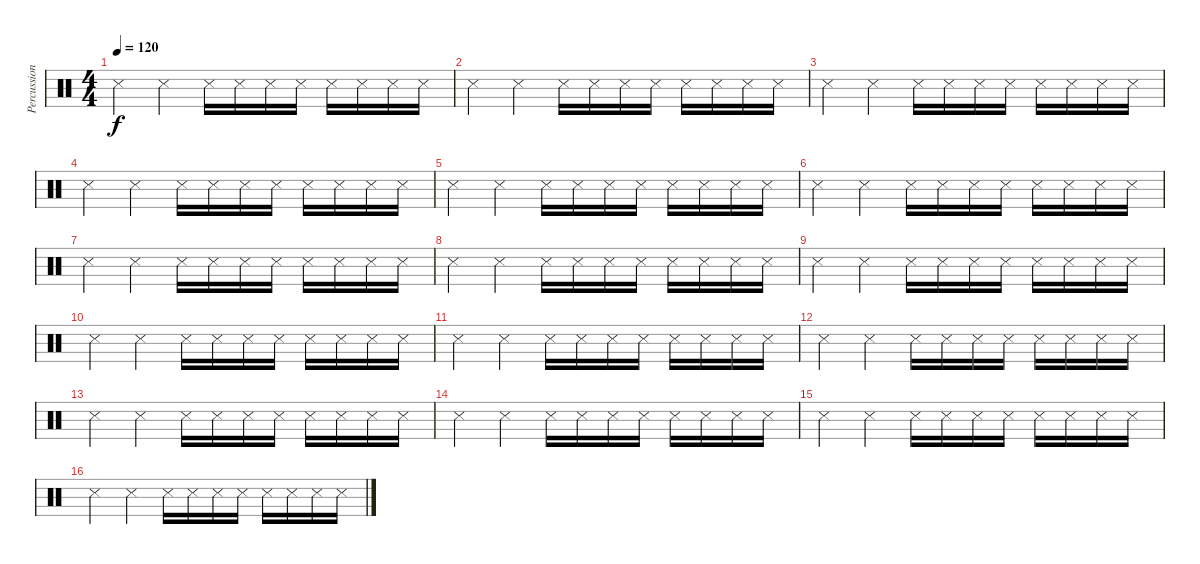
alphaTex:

\track ("Percussioni" "Percussion") {instrument percussion}
\staff {score}
\articulation defaults
\ts (4 4)
\tempo 120
\clef neutral
\ks c "Metronome (hit)".4{dy f} "Metronome (hit)".4 "Metronome (hit)".16 "Metronome (hit)".16 "Metronome (hit)".16 "Metronome (hit)".16 "Metronome (hit)".16 "Metronome (hit)".16 "Metronome (hit)".16 "Metronome (hit)".16
|
"Metronome (hit)".4 "Metronome (hit)".4 "Metronome (hit)".16 "Metronome (hit)".16 "Metronome (hit)".16 "Metronome (hit)".16 "Metronome (hit)".16 "Metronome (hit)".16 "Metronome (hit)".16 "Metronome (hit)".16 |
"Metronome (hit)".4 "Metronome (hit)".4 "Metronome (hit)".16 "Metronome (hit)".16 "Metronome (hit)".16 "Metronome (hit)".16 "Metronome (hit)".16 "Metronome (hit)".16 "Metronome (hit)".16 "Metronome (hit)".16 |
"Metronome (hit)".4 "Metronome (hit)".4 "Metronome (hit)".16 "Metronome (hit)".16 "Metronome (hit)".16 "Metronome (hit)".16 "Metronome (hit)".16 "Metronome (hit)".16 "Metronome (hit)".16 "Metronome (hit)".16 |
"Metronome (hit)".4 "Metronome (hit)".4 "Metronome (hit)".16 "Metronome (hit)".16 "Metronome (hit)".16 "Metronome (hit)".16 "Metronome (hit)".16 "Metronome (hit)".16 "Metronome (hit)".16 "Metronome (hit)".16 |
"Metronome (hit)".4 "Metronome (hit)".4 "Metronome (hit)".16 "Metronome (hit)".16 "Metronome (hit)".16 "Metronome (hit)".16 "Metronome (hit)".16 "Metronome (hit)".16 "Metronome (hit)".16 "Metronome (hit)".16 |
"Metronome (hit)".4 "Metronome (hit)".4 "Metronome (hit)".16 "Metronome (hit)".16 "Metronome (hit)".16 "Metronome (hit)".16 "Metronome (hit)".16 "Metronome (hit)".16 "Metronome (hit)".16 "Metronome (hit)".16 |
"Metronome (hit)".4 "Metronome (hit)".4 "Metronome (hit)".16 "Metronome (hit)".16 "Metronome (hit)".16 "Metronome (hit)".16 "Metronome (hit)".16 "Metronome (hit)".16 "Metronome (hit)".16 "Metronome (hit)".16 |
"Metronome (hit)".4 "Metronome (hit)".4 "Metronome (hit)".16 "Metronome (hit)".16 "Metronome (hit)".16 "Metronome (hit)".16 "Metronome (hit)".16 "Metronome (hit)".16 "Metronome (hit)".16 "Metronome (hit)".16 |
"Metronome (hit)".4 "Metronome (hit)".4 "Metronome (hit)".16 "Metronome (hit)".16 "Metronome (hit)".16 "Metronome (hit)".16 "Metronome (hit)".16 "Metronome (hit)".16 "Metronome (hit)".16 "Metronome (hit)".16 |
"Metronome (hit)".4 "Metronome (hit)".4 "Metronome (hit)".16 "Metronome (hit)".16 "Metronome (hit)".16 "Metronome (hit)".16 "Metronome (hit)".16 "Metronome (hit)".16 "Metronome (hit)".16 "Metronome (hit)".16 |
"Metronome (hit)".4 "Metronome (hit)".4 "Metronome (hit)".16 "Metronome (hit)".16 "Metronome (hit)".16 "Metronome (hit)".16 "Metronome (hit)".16 "Metronome (hit)".16 "Metronome (hit)".16 "Metronome (hit)".16 |
"Metronome (hit)".4 "Metronome (hit)".4 "Metronome (hit)".16 "Metronome (hit)".16 "Metronome (hit)".16 "Metronome (hit)".16 "Metronome (hit)".16 "Metronome (hit)".16 "Metronome (hit)".16 "Metronome (hit)".16 |
"Metronome (hit)".4 "Metronome (hit)".4 "Metronome (hit)".16 "Metronome (hit)".16 "Metronome (hit)".16 "Metronome (hit)".16 "Metronome (hit)".16 "Metronome (hit)".16 "Metronome (hit)".16 "Metronome (hit)".16 |
"Metronome (hit)".4 "Metronome (hit)".4 "Metronome (hit)".16 "Metronome (hit)".16 "Metronome (hit)".16 "Metronome (hit)".16 "Metronome (hit)".16 "Metronome (hit)".16 "Metronome (hit)".16 "Metronome (hit)".16 |
"Metronome (hit)".4 "Metronome (hit)".4 "Metronome (hit)".16 "Metronome (hit)".16 "Metronome (hit)".16 "Metronome (hit)".16 "Metronome (hit)".16 "Metronome (hit)".16 "Metronome (hit)".16 "Metronome (hit)".16
